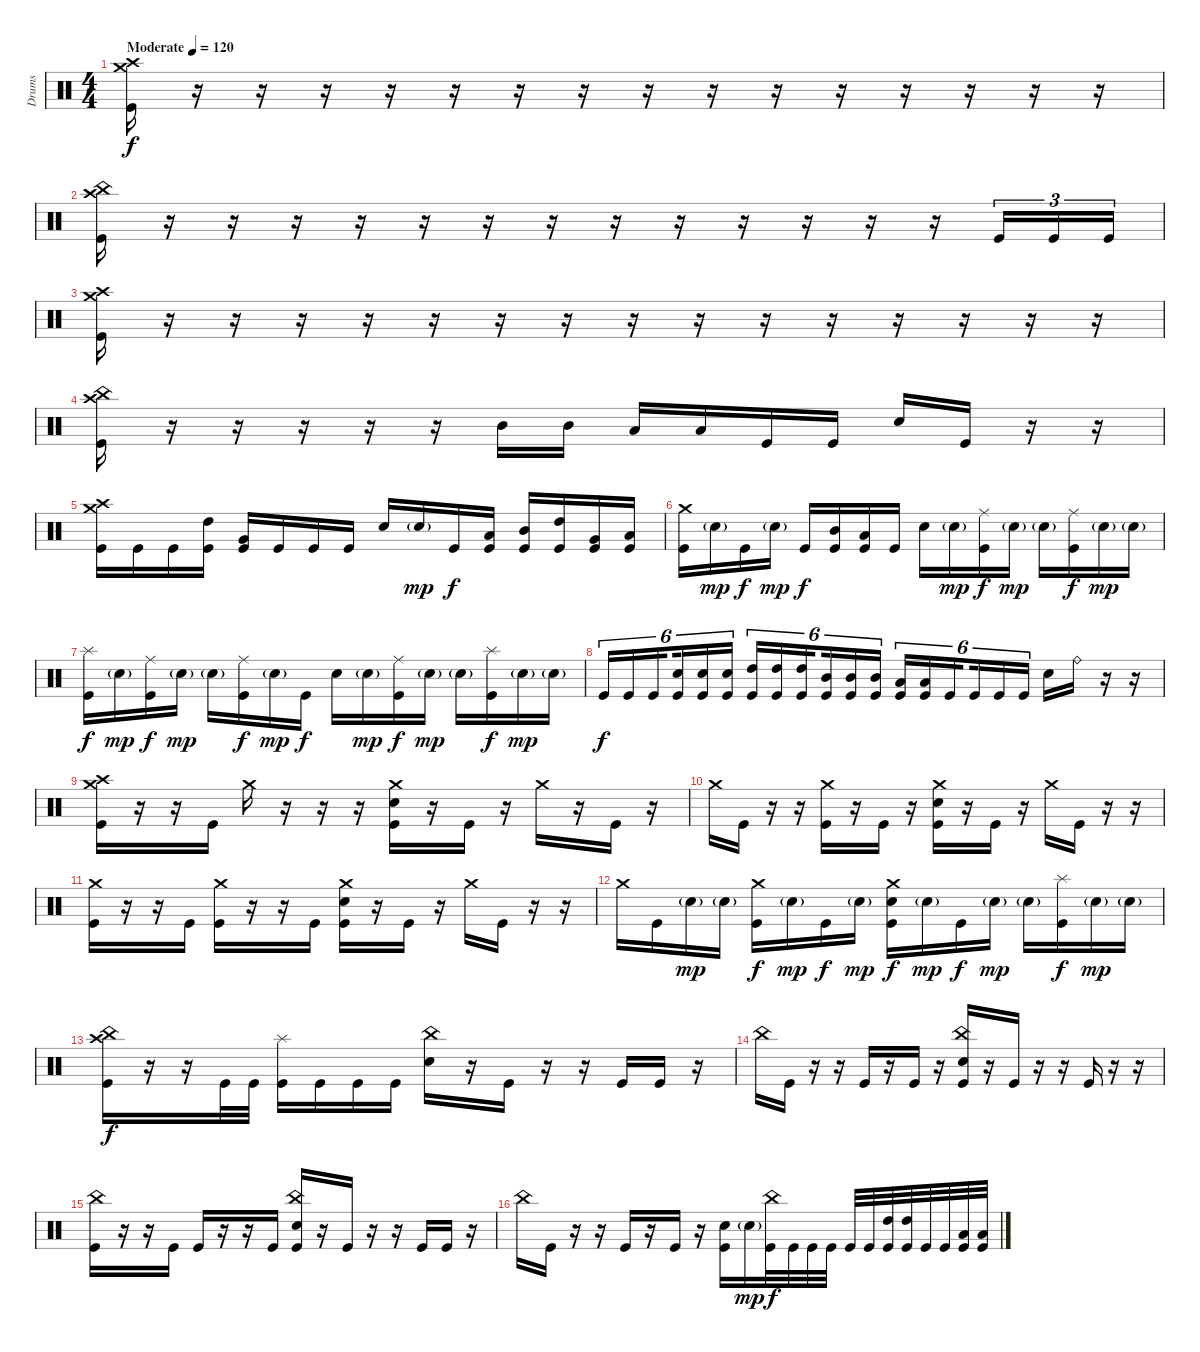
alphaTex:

\track ("Drums" "Drums") {instrument percussion}
\staff {score}
\articulation defaults
\ts (4 4)
\tempo (120 "Moderate")
\clef neutral
\ks c
("Crash high (hit)" "Crash medium (hit)" "Kick (hit)").16{dy f} r.16 r.16 r.16 r.16 r.16 r.16 r.16 r.16 r.16 r.16 r.16 r.16 r.16 r.16 r.16 |
("Crash high (hit)" "China (hit)" "Kick (hit)").16 r.16 r.16 r.16 r.16 r.16 r.16 r.16 r.16 r.16 r.16 r.16 r.16 r.16 "Kick (hit)".16{tu (3 2)} "Kick (hit)".16{tu (3 2)} "Kick (hit)".16{tu (3 2)} |
("Crash high (hit)" "Crash medium (hit)" "Kick (hit)").16 r.16 r.16 r.16 r.16 r.16 r.16 r.16 r.16 r.16 r.16 r.16 r.16 r.16 r.16 r.16 |
("Crash high (hit)" "China (hit)" "Kick (hit)").16 r.16 r.16 r.16 r.16 r.16 "Mid Tom (hit)".16 "Mid Tom (hit)".16 "Low Tom (hit)".16 "Low Tom (hit)".16 "Kick (hit)".16 "Kick (hit)".16 "Snare (hit) 2".16 "Kick (hit)".16 r.16 r.16 |
("Crash high (hit)" "Crash medium (hit)" "Kick (hit)").16 "Kick (hit)".16 "Kick (hit)".16 ("Kick (hit)" "High Tom (hit)").16 ("Kick (hit)" "Very Low Tom (hit)").16 "Kick (hit)".16 "Kick (hit)".16 "Kick (hit)".16 "Snare (hit) 2".16 "Snare (hit) 2"{g}.16{dy mp} "Kick (hit)".16{dy f} ("Kick (hit)" "Low Tom (hit)").16 ("Kick (hit)" "Mid Tom (hit)").16 ("Kick (hit)" "High Tom (hit)").16 ("Kick (hit)" "Very Low Tom (hit)").16 ("Kick (hit)" "Low Floor Tom (hit)").16 |
("Crash medium (hit)" "Kick (hit)").16 "Snare (hit) 2"{g}.16{dy mp} "Kick (hit)".16{dy f} "Snare (hit) 2"{g}.16{dy mp} "Kick (hit)".16{dy f} ("Kick (hit)" "Mid Tom (hit)").16 ("Low Tom (hit)" "Kick (hit)").16 "Kick (hit)".16 "Snare (hit) 2".16 "Snare (hit) 2"{g}.16{dy mp} ("Ride (middle)" "Kick (hit)").16{dy f} "Snare (hit) 2"{g}.16{dy mp} "Snare (hit) 2"{g}.16 ("Ride (middle)" "Kick (hit)").16{dy f} "Snare (hit) 2"{g}.16{dy mp} "Snare (hit) 2"{g}.16 |
("Splash (hit)" "Kick (hit)").16{dy f} "Snare (hit) 2"{g}.16{dy mp} ("Ride (middle)" "Kick (hit)").16{dy f} "Snare (hit) 2"{g}.16{dy mp} "Snare (hit) 2"{g}.16 ("Ride (middle)" "Kick (hit)").16{dy f} "Snare (hit) 2"{g}.16{dy mp} "Kick (hit)".16{dy f} "Snare (hit) 2".16 "Snare (hit) 2"{g}.16{dy mp} ("Ride (middle)" "Kick (hit)").16{dy f} "Snare (hit) 2"{g}.16{dy mp} "Snare (hit) 2"{g}.16 ("Splash (hit)" "Kick (hit)").16{dy f} "Snare (hit) 2"{g}.16{dy mp} "Snare (hit) 2"{g}.16 |
"Kick (hit)".16{tu (6 4) dy f} "Kick (hit)".16{tu (6 4)} "Kick (hit)".16{tu (6 4) beam splitsecondary} ("Kick (hit)" "Snare (hit) 2").16{tu (6 4)} ("Kick (hit)" "Snare (hit) 2").16{tu (6 4)} ("Kick (hit)" "Snare (hit) 2").16{tu (6 4)} ("Kick (hit)" "High Tom (hit)").16{tu (6 4)} ("Kick (hit)" "High Tom (hit)").16{tu (6 4)} ("Kick (hit)" "High Tom (hit)").16{tu (6 4) beam splitsecondary} ("Kick (hit)" "Mid Tom (hit)").16{tu (6 4)} ("Kick (hit)" "Mid Tom (hit)").16{tu (6 4)} ("Kick (hit)" "Mid Tom (hit)").16{tu (6 4)} ("Kick (hit)" "Low Tom (hit)").16{tu (6 4)} ("Kick (hit)" "Low Tom (hit)").16{tu (6 4)} "Kick (hit)".16{tu (6 4) beam splitsecondary} "Kick (hit)".16{tu (6 4)} "Kick (hit)".16{tu (6 4)} "Kick (hit)".16{tu (6 4)} "Snare (hit) 2".16 "Ride (bell)".16 r.16 r.16 |
("Crash high (hit)" "Crash medium (hit)" "Kick (hit)").16 r.16 r.16 "Kick (hit)".16 "Crash medium (hit)".16 r.16 r.16 r.16 ("Crash medium (hit)" "Kick (hit)" "Snare (hit) 2").16 r.16 "Kick (hit)".16 r.16 "Crash medium (hit)".16 r.16 "Kick (hit)".16 r.16 |
"Crash medium (hit)".16 "Kick (hit)".16 r.16 r.16 ("Crash medium (hit)" "Kick (hit)").16 r.16 "Kick (hit)".16 r.16 ("Crash medium (hit)" "Snare (hit) 2" "Kick (hit)").16 r.16 "Kick (hit)".16 r.16 "Crash medium (hit)".16 "Kick (hit)".16 r.16 r.16 |
("Crash medium (hit)" "Kick (hit)").16 r.16 r.16 "Kick (hit)".16 ("Crash medium (hit)" "Kick (hit)").16 r.16 r.16 "Kick (hit)".16 ("Crash medium (hit)" "Kick (hit)" "Snare (hit) 2").16 r.16 "Kick (hit)".16 r.16 "Crash medium (hit)".16 "Kick (hit)".16 r.16 r.16 |
"Crash medium (hit)".16 "Kick (hit)".16 "Snare (hit) 2"{g}.16{dy mp} "Snare (hit) 2"{g}.16 ("Kick (hit)" "Crash medium (hit)").16{dy f} "Snare (hit) 2"{g}.16{dy mp} "Kick (hit)".16{dy f} "Snare (hit) 2"{g}.16{dy mp} ("Kick (hit)" "Crash medium (hit)" "Snare (hit) 2").16{dy f} "Snare (hit) 2"{g}.16{dy mp} "Kick (hit)".16{dy f} "Snare (hit) 2"{g}.16{dy mp} "Snare (hit) 2"{g}.16 ("Kick (hit)" "Splash (hit)").16{dy f} "Snare (hit) 2"{g}.16{dy mp} "Snare (hit) 2"{g}.16 |
("Crash high (hit)" "Kick (hit)" "China (hit)").16{dy f} r.16 r.16 "Kick (hit)".32 "Kick (hit)".32 ("Kick (hit)" "Splash (hit)").16 "Kick (hit)".16 "Kick (hit)".16 "Kick (hit)".16 ("Snare (hit) 2" "China (hit)").16 r.16 "Kick (hit)".16 r.16 r.16 "Kick (hit)".16 "Kick (hit)".16 r.16 |
"China (hit)".16 "Kick (hit)".16 r.16 r.16 "Kick (hit)".16 r.16 "Kick (hit)".16 r.16 ("China (hit)" "Snare (hit) 2" "Kick (hit)").16 r.16 "Kick (hit)".16 r.16 r.16 "Kick (hit)".16 r.16 r.16 |
("China (hit)" "Kick (hit)").16 r.16 r.16 "Kick (hit)".16 "Kick (hit)".16 r.16 r.16 "Kick (hit)".16 ("China (hit)" "Snare (hit) 2" "Kick (hit)").16 r.16 "Kick (hit)".16 r.16 r.16 "Kick (hit)".16 "Kick (hit)".16 r.16 |
"China (hit)".16 "Kick (hit)".16 r.16 r.16 "Kick (hit)".16 r.16 "Kick (hit)".16 r.16 ("Kick (hit)" "Snare (hit) 2").16 "Snare (hit) 2"{g}.16{dy mp} ("Kick (hit)" "China (hit)").32{dy f} "Kick (hit)".32 "Kick (hit)".32 "Kick (hit)".32 "Kick (hit)".32 "Kick (hit)".32 ("Kick (hit)" "High Tom (hit)").32 ("Kick (hit)" "High Tom (hit)").32 "Kick (hit)".32 "Kick (hit)".32 ("Kick (hit)" "Low Tom (hit)").32 ("Kick (hit)" "Low Tom (hit)").32
